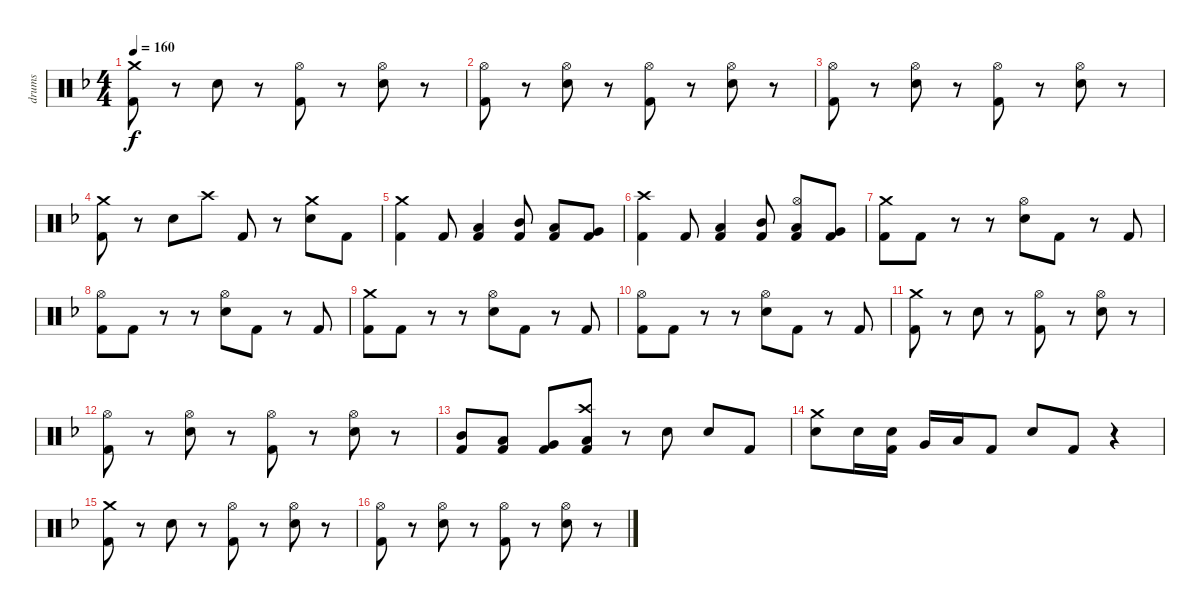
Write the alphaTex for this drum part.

\track ("drums" "drums") {instrument percussion}
\staff {score}
\articulation defaults
\ts (4 4)
\tempo 160
\clef neutral
\ks f
("Crash medium (hit)" "Kick (hit) 2").8{dy f} r.8 "Electric Snare (hit)".8 r.8 ("Hi-Hat (open)" "Kick (hit) 2").8 r.8 ("Hi-Hat (open)" "Electric Snare (hit)").8 r.8 |
("Hi-Hat (open)" "Kick (hit) 2").8 r.8 ("Hi-Hat (open)" "Electric Snare (hit)").8 r.8 ("Hi-Hat (open)" "Kick (hit) 2").8 r.8 ("Hi-Hat (open)" "Electric Snare (hit)").8 r.8 |
("Hi-Hat (open)" "Kick (hit) 2").8 r.8 ("Hi-Hat (open)" "Electric Snare (hit)").8 r.8 ("Hi-Hat (open)" "Kick (hit) 2").8 r.8 ("Hi-Hat (open)" "Electric Snare (hit)").8 r.8 |
("Crash medium (hit)" "Kick (hit) 2").8 r.8 "Electric Snare (hit)".8 "Crash high (hit)".8 "Kick (hit) 2".8 r.8 ("Crash medium (hit)" "Electric Snare (hit)").8 "Kick (hit) 2".8 |
("Crash medium (hit)" "Kick (hit) 2").4 "Kick (hit) 2".8 ("Low Tom (hit)" "Kick (hit) 2").4 ("Mid Tom (hit)" "Kick (hit) 2").8 ("Low Tom (hit)" "Kick (hit) 2").8 ("Very Low Tom (hit)" "Kick (hit) 2").8 |
("Crash high (hit)" "Kick (hit) 2").4 "Kick (hit) 2".8 ("Low Tom (hit)" "Kick (hit) 2").4 ("Mid Tom (hit)" "Kick (hit) 2").8 ("Hi-Hat (open)" "Low Tom (hit)" "Kick (hit) 2").8 ("Very Low Tom (hit)" "Kick (hit) 2").8 |
("Crash medium (hit)" "Kick (hit) 2").8 "Kick (hit) 2".8 r.8 r.8 ("Hi-Hat (open)" "Electric Snare (hit)").8 "Kick (hit) 2".8 r.8 "Kick (hit) 2".8 |
("Hi-Hat (open)" "Kick (hit) 2").8 "Kick (hit) 2".8 r.8 r.8 ("Hi-Hat (open)" "Electric Snare (hit)").8 "Kick (hit) 2".8 r.8 "Kick (hit) 2".8 |
("Crash medium (hit)" "Kick (hit) 2").8 "Kick (hit) 2".8 r.8 r.8 ("Hi-Hat (open)" "Electric Snare (hit)").8 "Kick (hit) 2".8 r.8 "Kick (hit) 2".8 |
("Hi-Hat (open)" "Kick (hit) 2").8 "Kick (hit) 2".8 r.8 r.8 ("Hi-Hat (open)" "Electric Snare (hit)").8 "Kick (hit) 2".8 r.8 "Kick (hit) 2".8 |
("Crash medium (hit)" "Kick (hit) 2").8 r.8 "Electric Snare (hit)".8 r.8 ("Hi-Hat (open)" "Kick (hit) 2").8 r.8 ("Hi-Hat (open)" "Electric Snare (hit)").8 r.8 |
("Hi-Hat (open)" "Kick (hit) 2").8 r.8 ("Hi-Hat (open)" "Electric Snare (hit)").8 r.8 ("Hi-Hat (open)" "Kick (hit) 2").8 r.8 ("Hi-Hat (open)" "Electric Snare (hit)").8 r.8 |
("Mid Tom (hit)" "Kick (hit) 2").8 ("Low Tom (hit)" "Kick (hit) 2").8 ("Very Low Tom (hit)" "Kick (hit) 2").8 ("Crash high (hit)" "Low Floor Tom (hit)" "Kick (hit) 2").8 r.8 "Electric Snare (hit)".8 "Electric Snare (hit)".8 "Kick (hit) 2".8 |
("Crash medium (hit)" "Electric Snare (hit)").8 "Electric Snare (hit)".16 ("Electric Snare (hit)" "Kick (hit) 2").16 "Very Low Tom (hit)".16 "Low Floor Tom (hit)".16 "Kick (hit) 2".8 "Electric Snare (hit)".8 "Kick (hit) 2".8 r.4 |
("Crash medium (hit)" "Kick (hit) 2").8 r.8 "Electric Snare (hit)".8 r.8 ("Hi-Hat (open)" "Kick (hit) 2").8 r.8 ("Hi-Hat (open)" "Electric Snare (hit)").8 r.8 |
("Hi-Hat (open)" "Kick (hit) 2").8 r.8 ("Hi-Hat (open)" "Electric Snare (hit)").8 r.8 ("Hi-Hat (open)" "Kick (hit) 2").8 r.8 ("Hi-Hat (open)" "Electric Snare (hit)").8 r.8
